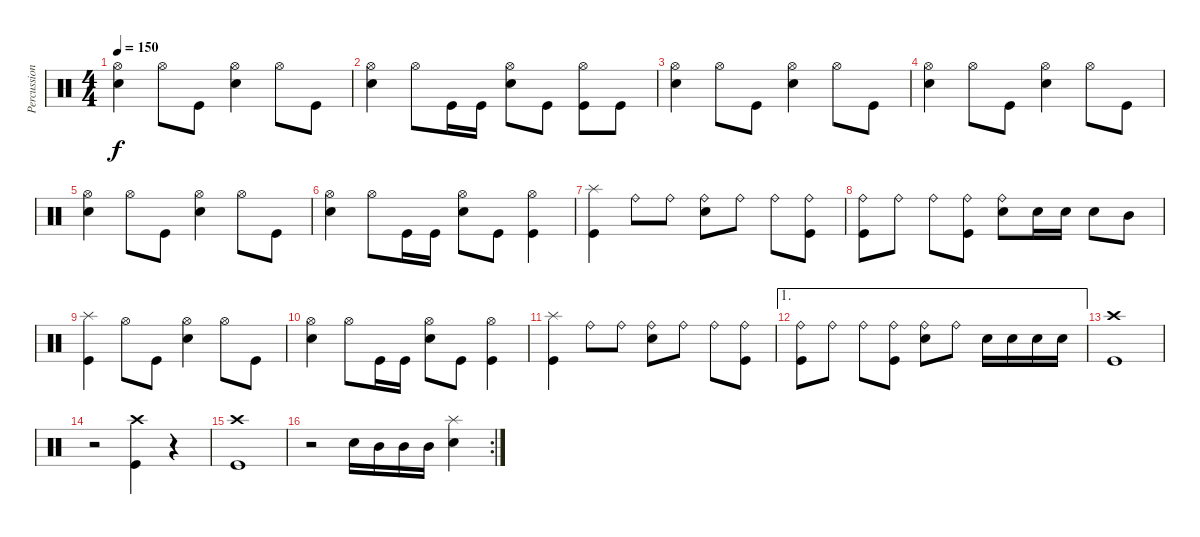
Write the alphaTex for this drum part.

\track ("Percussions" "Percussion") {instrument percussion}
\staff {score}
\articulation defaults
\ts (4 4)
\tempo 150
\clef neutral
\ks c
("Electric Snare (hit)" "Hi-Hat (open)").4{dy f} "Hi-Hat (open)".8 "Kick (hit)".8 ("Electric Snare (hit)" "Hi-Hat (open)").4 "Hi-Hat (open)".8 "Kick (hit)".8 |
("Electric Snare (hit)" "Hi-Hat (open)").4 "Hi-Hat (open)".8 "Kick (hit)".16 "Kick (hit)".16 ("Electric Snare (hit)" "Hi-Hat (open)").8 "Kick (hit)".8 ("Kick (hit)" "Hi-Hat (open)").8 "Kick (hit)".8 |
("Electric Snare (hit)" "Hi-Hat (open)").4 "Hi-Hat (open)".8 "Kick (hit)".8 ("Electric Snare (hit)" "Hi-Hat (open)").4 "Hi-Hat (open)".8 "Kick (hit)".8 |
("Electric Snare (hit)" "Hi-Hat (open)").4 "Hi-Hat (open)".8 "Kick (hit)".8 ("Electric Snare (hit)" "Hi-Hat (open)").4 "Hi-Hat (open)".8 "Kick (hit)".8 |
("Electric Snare (hit)" "Hi-Hat (open)").4 "Hi-Hat (open)".8 "Kick (hit)".8 ("Electric Snare (hit)" "Hi-Hat (open)").4 "Hi-Hat (open)".8 "Kick (hit)".8 |
("Electric Snare (hit)" "Hi-Hat (open)").4 "Hi-Hat (open)".8 "Kick (hit)".16 "Kick (hit)".16 ("Electric Snare (hit)" "Hi-Hat (open)").8 "Kick (hit)".8 ("Kick (hit)" "Hi-Hat (open)").4 |
("Kick (hit)" "Splash (hit)").4 "Ride (bell)".8 "Ride (bell)".8 ("Electric Snare (hit)" "Ride (bell)").8 "Ride (bell)".8 "Ride (bell)".8 ("Kick (hit)" "Ride (bell)").8 |
("Kick (hit)" "Ride (bell)").8 "Ride (bell)".8 "Ride (bell)".8 ("Kick (hit)" "Ride (bell)").8 ("Electric Snare (hit)" "Ride (bell)").8 "Electric Snare (hit)".16 "Electric Snare (hit)".16 "Electric Snare (hit)".8 "Mid Tom (hit)".8 |
("Kick (hit)" "Splash (hit)").4 "Hi-Hat (open)".8 "Kick (hit)".8 ("Electric Snare (hit)" "Hi-Hat (open)").4 "Hi-Hat (open)".8 "Kick (hit)".8 |
("Electric Snare (hit)" "Hi-Hat (open)").4 "Hi-Hat (open)".8 "Kick (hit)".16 "Kick (hit)".16 ("Electric Snare (hit)" "Hi-Hat (open)").8 "Kick (hit)".8 ("Kick (hit)" "Hi-Hat (open)").4 |
("Kick (hit)" "Splash (hit)").4 "Ride (bell)".8 "Ride (bell)".8 ("Electric Snare (hit)" "Ride (bell)").8 "Ride (bell)".8 "Ride (bell)".8 ("Kick (hit)" "Ride (bell)").8 |
\ae 1
("Kick (hit)" "Ride (bell)").8 "Ride (bell)".8 "Ride (bell)".8 ("Kick (hit)" "Ride (bell)").8 ("Electric Snare (hit)" "Ride (bell)").8 "Ride (bell)".8 "Electric Snare (hit)".16 "Electric Snare (hit)".16 "Electric Snare (hit)".16 "Electric Snare (hit)".16 |
("Kick (hit)" "Crash high (hit)").1 |
r.2 ("Kick (hit)" "Crash high (hit)").4 r.4 |
("Kick (hit)" "Crash high (hit)").1 |
\rc 2
r.2 "Electric Snare (hit)".16 "Mid Tom (hit)".16 "Mid Tom (hit)".16 "Mid Tom (hit)".16 ("Electric Snare (hit)" "Splash (hit)").4
